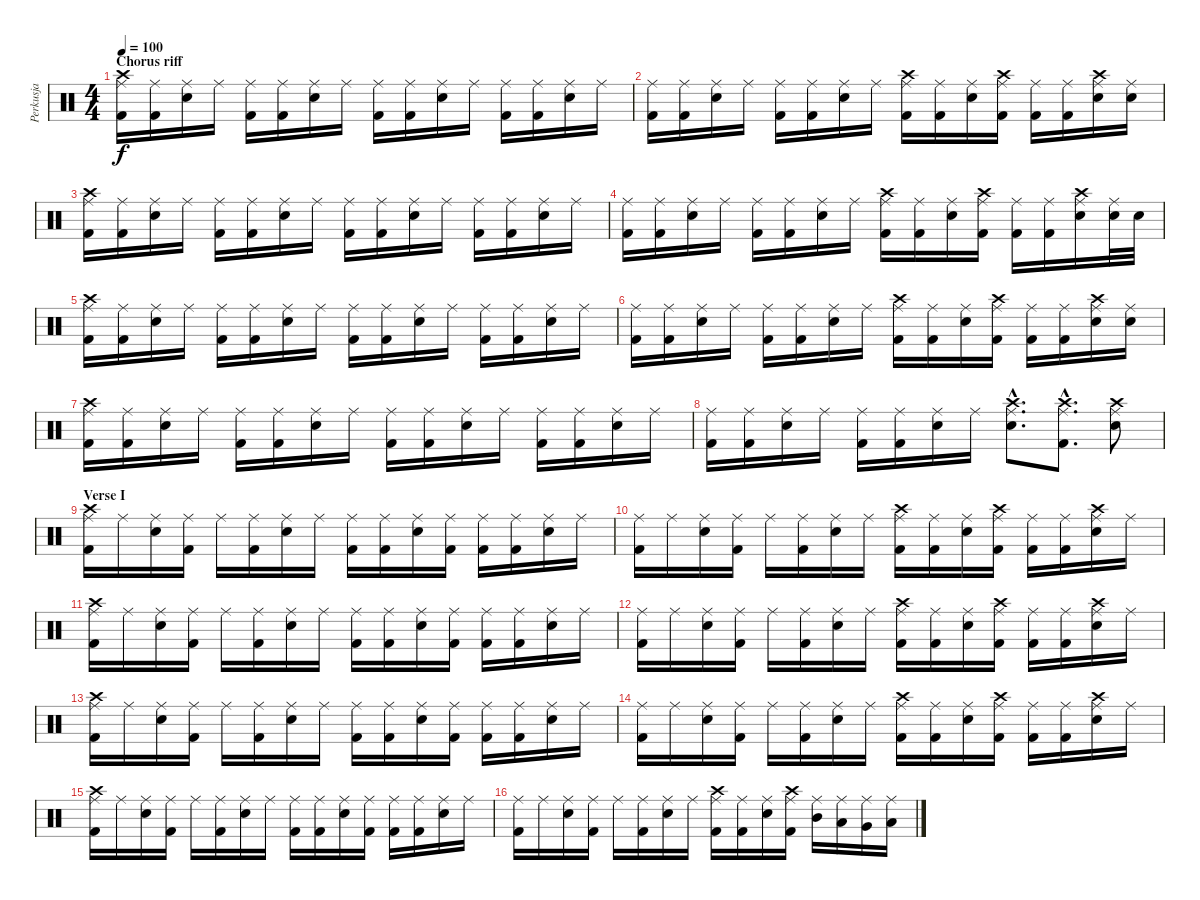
\track ("Perkusja" "Perkusja") {instrument percussion}
\staff {score}
\articulation defaults
\ts (4 4)
\section ("" "Chorus riff")
\tempo 100
\clef neutral
\ks c
("Kick (hit) 2" "Ride (middle)" "Crash high (hit)").16{dy f} ("Kick (hit) 2" "Ride (middle)").16 ("Snare (hit) 2" "Ride (middle)").16 "Ride (middle)".16 ("Kick (hit) 2" "Ride (middle)").16 ("Kick (hit) 2" "Ride (middle)").16 ("Snare (hit) 2" "Ride (middle)").16 "Ride (middle)".16 ("Kick (hit) 2" "Ride (middle)").16 ("Kick (hit) 2" "Ride (middle)").16 ("Snare (hit) 2" "Ride (middle)").16 "Ride (middle)".16 ("Kick (hit) 2" "Ride (middle)").16 ("Kick (hit) 2" "Ride (middle)").16 ("Snare (hit) 2" "Ride (middle)").16 "Ride (middle)".16 |
("Kick (hit) 2" "Ride (middle)").16 ("Kick (hit) 2" "Ride (middle)").16 ("Snare (hit) 2" "Ride (middle)").16 "Ride (middle)".16 ("Kick (hit) 2" "Ride (middle)").16 ("Kick (hit) 2" "Ride (middle)").16 ("Snare (hit) 2" "Ride (middle)").16 "Ride (middle)".16 ("Kick (hit) 2" "Ride (middle)" "Crash high (hit)").16 ("Kick (hit) 2" "Ride (middle)").16 ("Snare (hit) 2" "Ride (middle)").16 ("Kick (hit) 2" "Ride (middle)" "Crash high (hit)").16 ("Kick (hit) 2" "Ride (middle)").16 ("Kick (hit) 2" "Ride (middle)").16 ("Snare (hit) 2" "Ride (middle)" "Crash high (hit)").16 ("Snare (hit) 2" "Ride (middle)").16 |
("Kick (hit) 2" "Ride (middle)" "Crash high (hit)").16 ("Kick (hit) 2" "Ride (middle)").16 ("Snare (hit) 2" "Ride (middle)").16 "Ride (middle)".16 ("Kick (hit) 2" "Ride (middle)").16 ("Kick (hit) 2" "Ride (middle)").16 ("Snare (hit) 2" "Ride (middle)").16 "Ride (middle)".16 ("Kick (hit) 2" "Ride (middle)").16 ("Kick (hit) 2" "Ride (middle)").16 ("Snare (hit) 2" "Ride (middle)").16 "Ride (middle)".16 ("Kick (hit) 2" "Ride (middle)").16 ("Kick (hit) 2" "Ride (middle)").16 ("Snare (hit) 2" "Ride (middle)").16 "Ride (middle)".16 |
("Kick (hit) 2" "Ride (middle)").16 ("Kick (hit) 2" "Ride (middle)").16 ("Snare (hit) 2" "Ride (middle)").16 "Ride (middle)".16 ("Kick (hit) 2" "Ride (middle)").16 ("Kick (hit) 2" "Ride (middle)").16 ("Snare (hit) 2" "Ride (middle)").16 "Ride (middle)".16 ("Kick (hit) 2" "Ride (middle)" "Crash high (hit)").16 ("Kick (hit) 2" "Ride (middle)").16 ("Snare (hit) 2" "Ride (middle)").16 ("Kick (hit) 2" "Ride (middle)" "Crash high (hit)").16 ("Kick (hit) 2" "Ride (middle)").16 ("Kick (hit) 2" "Ride (middle)").16 ("Snare (hit) 2" "Ride (middle)" "Crash high (hit)").16 ("Snare (hit) 2" "Ride (middle)").32 "Snare (hit) 2".32 |
("Kick (hit) 2" "Ride (middle)" "Crash high (hit)").16 ("Kick (hit) 2" "Ride (middle)").16 ("Snare (hit) 2" "Ride (middle)").16 "Ride (middle)".16 ("Kick (hit) 2" "Ride (middle)").16 ("Kick (hit) 2" "Ride (middle)").16 ("Snare (hit) 2" "Ride (middle)").16 "Ride (middle)".16 ("Kick (hit) 2" "Ride (middle)").16 ("Kick (hit) 2" "Ride (middle)").16 ("Snare (hit) 2" "Ride (middle)").16 "Ride (middle)".16 ("Kick (hit) 2" "Ride (middle)").16 ("Kick (hit) 2" "Ride (middle)").16 ("Snare (hit) 2" "Ride (middle)").16 "Ride (middle)".16 |
("Kick (hit) 2" "Ride (middle)").16 ("Kick (hit) 2" "Ride (middle)").16 ("Snare (hit) 2" "Ride (middle)").16 "Ride (middle)".16 ("Kick (hit) 2" "Ride (middle)").16 ("Kick (hit) 2" "Ride (middle)").16 ("Snare (hit) 2" "Ride (middle)").16 "Ride (middle)".16 ("Kick (hit) 2" "Ride (middle)" "Crash high (hit)").16 ("Kick (hit) 2" "Ride (middle)").16 ("Snare (hit) 2" "Ride (middle)").16 ("Kick (hit) 2" "Ride (middle)" "Crash high (hit)").16 ("Kick (hit) 2" "Ride (middle)").16 ("Kick (hit) 2" "Ride (middle)").16 ("Snare (hit) 2" "Ride (middle)" "Crash high (hit)").16 ("Snare (hit) 2" "Ride (middle)").16 |
("Kick (hit) 2" "Ride (middle)" "Crash high (hit)").16 ("Kick (hit) 2" "Ride (middle)").16 ("Snare (hit) 2" "Ride (middle)").16 "Ride (middle)".16 ("Kick (hit) 2" "Ride (middle)").16 ("Kick (hit) 2" "Ride (middle)").16 ("Snare (hit) 2" "Ride (middle)").16 "Ride (middle)".16 ("Kick (hit) 2" "Ride (middle)").16 ("Kick (hit) 2" "Ride (middle)").16 ("Snare (hit) 2" "Ride (middle)").16 "Ride (middle)".16 ("Kick (hit) 2" "Ride (middle)").16 ("Kick (hit) 2" "Ride (middle)").16 ("Snare (hit) 2" "Ride (middle)").16 "Ride (middle)".16 |
("Kick (hit) 2" "Ride (middle)").16 ("Kick (hit) 2" "Ride (middle)").16 ("Snare (hit) 2" "Ride (middle)").16 "Ride (middle)".16 ("Kick (hit) 2" "Ride (middle)").16 ("Kick (hit) 2" "Ride (middle)").16 ("Snare (hit) 2" "Ride (middle)").16 "Ride (middle)".16 ("Snare (hit) 2"{hac} "Ride (middle)"{hac} "Crash high (hit)"{hac}).8{d} ("Kick (hit) 2"{hac} "Ride (middle)"{hac} "Crash high (hit)"{hac}).8{d} ("Snare (hit) 2" "Ride (middle)" "Crash high (hit)").8 |
\section ("" "Verse I")
("Kick (hit) 2" "Ride (middle)" "Crash high (hit)").16 "Ride (middle)".16 ("Snare (hit) 2" "Ride (middle)").16 ("Kick (hit) 2" "Ride (middle)").16 "Ride (middle)".16 ("Kick (hit) 2" "Ride (middle)").16 ("Snare (hit) 2" "Ride (middle)").16 "Ride (middle)".16 ("Kick (hit) 2" "Ride (middle)").16 ("Kick (hit) 2" "Ride (middle)").16 ("Snare (hit) 2" "Ride (middle)").16 ("Kick (hit) 2" "Ride (middle)").16 ("Kick (hit) 2" "Ride (middle)").16 ("Kick (hit) 2" "Ride (middle)").16 ("Snare (hit) 2" "Ride (middle)").16 "Ride (middle)".16 |
("Kick (hit) 2" "Ride (middle)").16 "Ride (middle)".16 ("Snare (hit) 2" "Ride (middle)").16 ("Kick (hit) 2" "Ride (middle)").16 "Ride (middle)".16 ("Kick (hit) 2" "Ride (middle)").16 ("Snare (hit) 2" "Ride (middle)").16 "Ride (middle)".16 ("Kick (hit) 2" "Ride (middle)" "Crash high (hit)").16 ("Kick (hit) 2" "Ride (middle)").16 ("Snare (hit) 2" "Ride (middle)").16 ("Kick (hit) 2" "Ride (middle)" "Crash high (hit)").16 ("Kick (hit) 2" "Ride (middle)").16 ("Kick (hit) 2" "Ride (middle)").16 ("Snare (hit) 2" "Ride (middle)" "Crash high (hit)").16 "Ride (middle)".16 |
("Kick (hit) 2" "Ride (middle)" "Crash high (hit)").16 "Ride (middle)".16 ("Snare (hit) 2" "Ride (middle)").16 ("Kick (hit) 2" "Ride (middle)").16 "Ride (middle)".16 ("Kick (hit) 2" "Ride (middle)").16 ("Snare (hit) 2" "Ride (middle)").16 "Ride (middle)".16 ("Kick (hit) 2" "Ride (middle)").16 ("Kick (hit) 2" "Ride (middle)").16 ("Snare (hit) 2" "Ride (middle)").16 ("Kick (hit) 2" "Ride (middle)").16 ("Kick (hit) 2" "Ride (middle)").16 ("Kick (hit) 2" "Ride (middle)").16 ("Snare (hit) 2" "Ride (middle)").16 "Ride (middle)".16 |
("Kick (hit) 2" "Ride (middle)").16 "Ride (middle)".16 ("Snare (hit) 2" "Ride (middle)").16 ("Kick (hit) 2" "Ride (middle)").16 "Ride (middle)".16 ("Kick (hit) 2" "Ride (middle)").16 ("Snare (hit) 2" "Ride (middle)").16 "Ride (middle)".16 ("Kick (hit) 2" "Ride (middle)" "Crash high (hit)").16 ("Kick (hit) 2" "Ride (middle)").16 ("Snare (hit) 2" "Ride (middle)").16 ("Kick (hit) 2" "Ride (middle)" "Crash high (hit)").16 ("Kick (hit) 2" "Ride (middle)").16 ("Kick (hit) 2" "Ride (middle)").16 ("Snare (hit) 2" "Ride (middle)" "Crash high (hit)").16 "Ride (middle)".16 |
("Kick (hit) 2" "Ride (middle)" "Crash high (hit)").16 "Ride (middle)".16 ("Snare (hit) 2" "Ride (middle)").16 ("Kick (hit) 2" "Ride (middle)").16 "Ride (middle)".16 ("Kick (hit) 2" "Ride (middle)").16 ("Snare (hit) 2" "Ride (middle)").16 "Ride (middle)".16 ("Kick (hit) 2" "Ride (middle)").16 ("Kick (hit) 2" "Ride (middle)").16 ("Snare (hit) 2" "Ride (middle)").16 ("Kick (hit) 2" "Ride (middle)").16 ("Kick (hit) 2" "Ride (middle)").16 ("Kick (hit) 2" "Ride (middle)").16 ("Snare (hit) 2" "Ride (middle)").16 "Ride (middle)".16 |
("Kick (hit) 2" "Ride (middle)").16 "Ride (middle)".16 ("Snare (hit) 2" "Ride (middle)").16 ("Kick (hit) 2" "Ride (middle)").16 "Ride (middle)".16 ("Kick (hit) 2" "Ride (middle)").16 ("Snare (hit) 2" "Ride (middle)").16 "Ride (middle)".16 ("Kick (hit) 2" "Ride (middle)" "Crash high (hit)").16 ("Kick (hit) 2" "Ride (middle)").16 ("Snare (hit) 2" "Ride (middle)").16 ("Kick (hit) 2" "Ride (middle)" "Crash high (hit)").16 ("Kick (hit) 2" "Ride (middle)").16 ("Kick (hit) 2" "Ride (middle)").16 ("Snare (hit) 2" "Ride (middle)" "Crash high (hit)").16 "Ride (middle)".16 |
("Kick (hit) 2" "Ride (middle)" "Crash high (hit)").16 "Ride (middle)".16 ("Snare (hit) 2" "Ride (middle)").16 ("Kick (hit) 2" "Ride (middle)").16 "Ride (middle)".16 ("Kick (hit) 2" "Ride (middle)").16 ("Snare (hit) 2" "Ride (middle)").16 "Ride (middle)".16 ("Kick (hit) 2" "Ride (middle)").16 ("Kick (hit) 2" "Ride (middle)").16 ("Snare (hit) 2" "Ride (middle)").16 ("Kick (hit) 2" "Ride (middle)").16 ("Kick (hit) 2" "Ride (middle)").16 ("Kick (hit) 2" "Ride (middle)").16 ("Snare (hit) 2" "Ride (middle)").16 "Ride (middle)".16 |
("Kick (hit) 2" "Ride (middle)").16 "Ride (middle)".16 ("Snare (hit) 2" "Ride (middle)").16 ("Kick (hit) 2" "Ride (middle)").16 "Ride (middle)".16 ("Kick (hit) 2" "Ride (middle)").16 ("Snare (hit) 2" "Ride (middle)").16 "Ride (middle)".16 ("Kick (hit) 2" "Ride (middle)" "Crash high (hit)").16 ("Kick (hit) 2" "Ride (middle)").16 ("Snare (hit) 2" "Ride (middle)").16 ("Kick (hit) 2" "Ride (middle)" "Crash high (hit)").16 ("Mid Tom (hit)" "Ride (middle)").16 ("Low Tom (hit)" "Ride (middle)").16 ("Very Low Tom (hit)" "Ride (middle)").16 ("Low Floor Tom (hit)" "Ride (middle)").16
